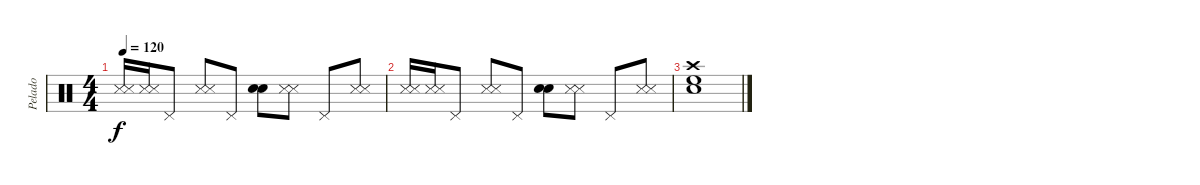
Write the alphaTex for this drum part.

\track ("Pelado" "Pelado") {instrument percussion}
\staff {score}
\articulation defaults
\ts (4 4)
\tempo 120
\clef neutral
\ks c
("Snare (side stick) 3" "Snare (side stick) 3").16{dy f} ("Snare (side stick) 3" "Snare (side stick) 3").16 "Pedal Hi-Hat (hit)".8 ("Snare (side stick) 3" "Snare (side stick) 3").8 "Pedal Hi-Hat (hit)".8 ("Electric Snare (hit)" "Snare (hit) 2").8 ("Snare (side stick) 3" "Snare (side stick) 3").8 "Pedal Hi-Hat (hit)".8 ("Snare (side stick) 3" "Snare (side stick) 3").8 |
("Snare (side stick) 3" "Snare (side stick) 3").16 ("Snare (side stick) 3" "Snare (side stick) 3").16 "Pedal Hi-Hat (hit)".8 ("Snare (side stick) 3" "Snare (side stick) 3").8 "Pedal Hi-Hat (hit)".8 ("Electric Snare (hit)" "Snare (hit) 2").8 ("Snare (side stick) 3" "Snare (side stick) 3").8 "Pedal Hi-Hat (hit)".8 ("Snare (side stick) 3" "Snare (side stick) 3").8 |
("Crash high (hit)" "Electric Snare (hit)" "High Floor Tom (hit)").1
